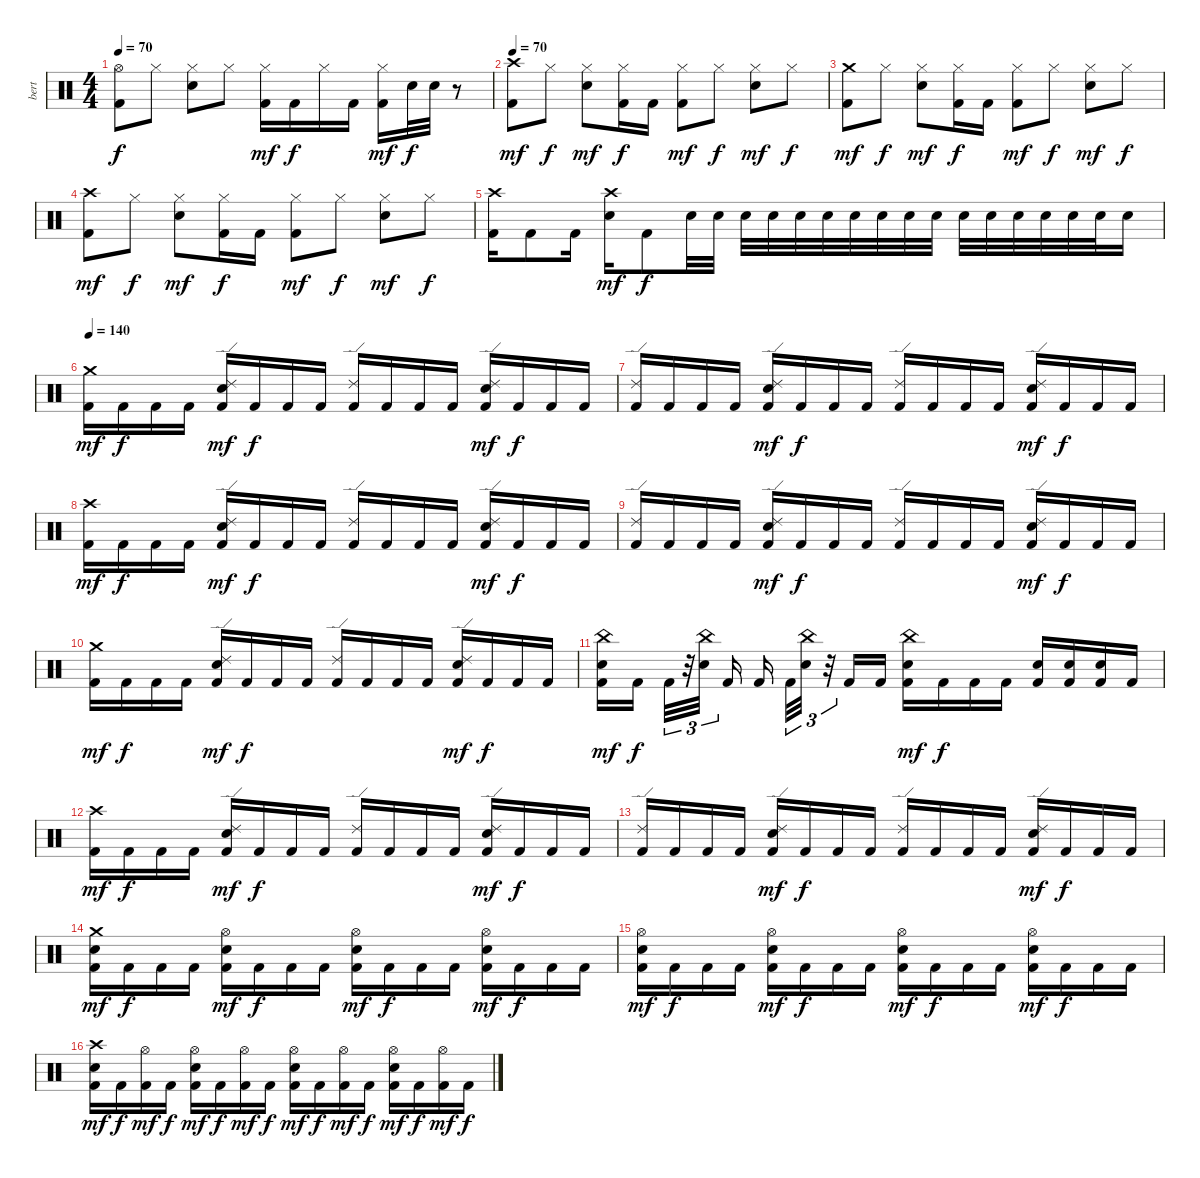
\track ("bert" "bert") {instrument percussion}
\staff {score}
\articulation defaults
\ts (4 4)
\tempo 70
\clef neutral
\ks c
("Hi-Hat (open)" "Kick (hit) 2").8{dy f} "Hi-Hat (closed)".8 ("Hi-Hat (closed)" "Snare (hit) 2").8 "Hi-Hat (closed)".8 ("Hi-Hat (closed)" "Kick (hit) 2").16{dy mf} "Kick (hit) 2".16{dy f} "Hi-Hat (closed)".16 "Kick (hit) 2".16 ("Hi-Hat (closed)" "Kick (hit) 2").16{dy mf} "Snare (hit) 2".32{dy f} "Snare (hit) 2".32 r.8 |
\tempo 70
("Crash high (hit)" "Kick (hit) 2").8{dy mf} "Hi-Hat (closed)".8{dy f} ("Hi-Hat (closed)" "Snare (hit) 2").8{dy mf} ("Hi-Hat (closed)" "Kick (hit) 2").16{dy f} "Kick (hit) 2".16 ("Hi-Hat (closed)" "Kick (hit) 2").8{dy mf} "Hi-Hat (closed)".8{dy f} ("Hi-Hat (closed)" "Snare (hit) 2").8{dy mf} "Hi-Hat (closed)".8{dy f} |
("Crash medium (hit)" "Kick (hit) 2").8{dy mf} "Hi-Hat (closed)".8{dy f} ("Hi-Hat (closed)" "Snare (hit) 2").8{dy mf} ("Hi-Hat (closed)" "Kick (hit) 2").16{dy f} "Kick (hit) 2".16 ("Hi-Hat (closed)" "Kick (hit) 2").8{dy mf} "Hi-Hat (closed)".8{dy f} ("Hi-Hat (closed)" "Snare (hit) 2").8{dy mf} "Hi-Hat (closed)".8{dy f} |
("Crash high (hit)" "Kick (hit) 2").8{dy mf} "Hi-Hat (closed)".8{dy f} ("Hi-Hat (closed)" "Snare (hit) 2").8{dy mf} ("Hi-Hat (closed)" "Kick (hit) 2").16{dy f} "Kick (hit) 2".16 ("Hi-Hat (closed)" "Kick (hit) 2").8{dy mf} "Hi-Hat (closed)".8{dy f} ("Hi-Hat (closed)" "Snare (hit) 2").8{dy mf} "Hi-Hat (closed)".8{dy f} |
("Crash high (hit)" "Kick (hit) 2").16 "Kick (hit) 2".8 "Kick (hit) 2".16 ("Crash high (hit)" "Snare (hit) 2").16{dy mf} "Kick (hit) 2".8{dy f} "Snare (hit) 2".32 "Snare (hit) 2".32 "Snare (hit) 2".32 "Snare (hit) 2".32 "Snare (hit) 2".32 "Snare (hit) 2".32 "Snare (hit) 2".32 "Snare (hit) 2".32 "Snare (hit) 2".32 "Snare (hit) 2".32 "Snare (hit) 2".32 "Snare (hit) 2".32 "Snare (hit) 2".32 "Snare (hit) 2".32 "Snare (hit) 2".32 "Snare (hit) 2".32 "Snare (hit) 2".16 |
\tempo 140
("Crash medium (hit)" "Kick (hit) 2").16{dy mf} "Kick (hit) 2".16{dy f} "Kick (hit) 2".16 "Kick (hit) 2".16 ("Ride (edge) 2" "Snare (hit) 2" "Kick (hit) 2").16{dy mf} "Kick (hit) 2".16{dy f} "Kick (hit) 2".16 "Kick (hit) 2".16 ("Ride (edge) 2" "Kick (hit) 2").16 "Kick (hit) 2".16 "Kick (hit) 2".16 "Kick (hit) 2".16 ("Ride (edge) 2" "Snare (hit) 2" "Kick (hit) 2").16{dy mf} "Kick (hit) 2".16{dy f} "Kick (hit) 2".16 "Kick (hit) 2".16 |
("Ride (edge) 2" "Kick (hit) 2").16 "Kick (hit) 2".16 "Kick (hit) 2".16 "Kick (hit) 2".16 ("Ride (edge) 2" "Snare (hit) 2" "Kick (hit) 2").16{dy mf} "Kick (hit) 2".16{dy f} "Kick (hit) 2".16 "Kick (hit) 2".16 ("Ride (edge) 2" "Kick (hit) 2").16 "Kick (hit) 2".16 "Kick (hit) 2".16 "Kick (hit) 2".16 ("Ride (edge) 2" "Snare (hit) 2" "Kick (hit) 2").16{dy mf} "Kick (hit) 2".16{dy f} "Kick (hit) 2".16 "Kick (hit) 2".16 |
("Crash high (hit)" "Kick (hit) 2").16{dy mf} "Kick (hit) 2".16{dy f} "Kick (hit) 2".16 "Kick (hit) 2".16 ("Ride (edge) 2" "Snare (hit) 2" "Kick (hit) 2").16{dy mf} "Kick (hit) 2".16{dy f} "Kick (hit) 2".16 "Kick (hit) 2".16 ("Ride (edge) 2" "Kick (hit) 2").16 "Kick (hit) 2".16 "Kick (hit) 2".16 "Kick (hit) 2".16 ("Ride (edge) 2" "Snare (hit) 2" "Kick (hit) 2").16{dy mf} "Kick (hit) 2".16{dy f} "Kick (hit) 2".16 "Kick (hit) 2".16 |
("Ride (edge) 2" "Kick (hit) 2").16 "Kick (hit) 2".16 "Kick (hit) 2".16 "Kick (hit) 2".16 ("Ride (edge) 2" "Snare (hit) 2" "Kick (hit) 2").16{dy mf} "Kick (hit) 2".16{dy f} "Kick (hit) 2".16 "Kick (hit) 2".16 ("Ride (edge) 2" "Kick (hit) 2").16 "Kick (hit) 2".16 "Kick (hit) 2".16 "Kick (hit) 2".16 ("Ride (edge) 2" "Snare (hit) 2" "Kick (hit) 2").16{dy mf} "Kick (hit) 2".16{dy f} "Kick (hit) 2".16 "Kick (hit) 2".16 |
("Crash medium (hit)" "Kick (hit) 2").16{dy mf} "Kick (hit) 2".16{dy f} "Kick (hit) 2".16 "Kick (hit) 2".16 ("Ride (edge) 2" "Snare (hit) 2" "Kick (hit) 2").16{dy mf} "Kick (hit) 2".16{dy f} "Kick (hit) 2".16 "Kick (hit) 2".16 ("Ride (edge) 2" "Kick (hit) 2").16 "Kick (hit) 2".16 "Kick (hit) 2".16 "Kick (hit) 2".16 ("Ride (edge) 2" "Snare (hit) 2" "Kick (hit) 2").16{dy mf} "Kick (hit) 2".16{dy f} "Kick (hit) 2".16 "Kick (hit) 2".16 |
("China (hit)" "Snare (hit) 2" "Kick (hit) 2").16{dy mf} "Kick (hit) 2".16{dy f} "Kick (hit) 2".32{tu (3 2)} r.32{tu (3 2)} ("China (hit)" "Snare (hit) 2").32{tu (3 2)} "Kick (hit) 2".16 "Kick (hit) 2".16 "Kick (hit) 2".32{tu (3 2)} ("China (hit)" "Snare (hit) 2").32{tu (3 2)} r.32{tu (3 2)} "Kick (hit) 2".16 "Kick (hit) 2".16 ("China (hit)" "Snare (hit) 2" "Kick (hit) 2").16{dy mf} "Kick (hit) 2".16{dy f} "Kick (hit) 2".16 "Kick (hit) 2".16 ("Snare (hit) 2" "Kick (hit) 2").16 ("Snare (hit) 2" "Kick (hit) 2").16 ("Snare (hit) 2" "Kick (hit) 2").16 "Kick (hit) 2".16 |
("Crash high (hit)" "Kick (hit) 2").16{dy mf} "Kick (hit) 2".16{dy f} "Kick (hit) 2".16 "Kick (hit) 2".16 ("Ride (edge) 2" "Snare (hit) 2" "Kick (hit) 2").16{dy mf} "Kick (hit) 2".16{dy f} "Kick (hit) 2".16 "Kick (hit) 2".16 ("Ride (edge) 2" "Kick (hit) 2").16 "Kick (hit) 2".16 "Kick (hit) 2".16 "Kick (hit) 2".16 ("Ride (edge) 2" "Snare (hit) 2" "Kick (hit) 2").16{dy mf} "Kick (hit) 2".16{dy f} "Kick (hit) 2".16 "Kick (hit) 2".16 |
("Ride (edge) 2" "Kick (hit) 2").16 "Kick (hit) 2".16 "Kick (hit) 2".16 "Kick (hit) 2".16 ("Ride (edge) 2" "Snare (hit) 2" "Kick (hit) 2").16{dy mf} "Kick (hit) 2".16{dy f} "Kick (hit) 2".16 "Kick (hit) 2".16 ("Ride (edge) 2" "Kick (hit) 2").16 "Kick (hit) 2".16 "Kick (hit) 2".16 "Kick (hit) 2".16 ("Ride (edge) 2" "Snare (hit) 2" "Kick (hit) 2").16{dy mf} "Kick (hit) 2".16{dy f} "Kick (hit) 2".16 "Kick (hit) 2".16 |
("Crash medium (hit)" "Snare (hit) 2" "Kick (hit) 2").16{dy mf} "Kick (hit) 2".16{dy f} "Kick (hit) 2".16 "Kick (hit) 2".16 ("Hi-Hat (open)" "Snare (hit) 2" "Kick (hit) 2").16{dy mf} "Kick (hit) 2".16{dy f} "Kick (hit) 2".16 "Kick (hit) 2".16 ("Hi-Hat (open)" "Snare (hit) 2" "Kick (hit) 2").16{dy mf} "Kick (hit) 2".16{dy f} "Kick (hit) 2".16 "Kick (hit) 2".16 ("Hi-Hat (open)" "Snare (hit) 2" "Kick (hit) 2").16{dy mf} "Kick (hit) 2".16{dy f} "Kick (hit) 2".16 "Kick (hit) 2".16 |
("Hi-Hat (open)" "Snare (hit) 2" "Kick (hit) 2").16{dy mf} "Kick (hit) 2".16{dy f} "Kick (hit) 2".16 "Kick (hit) 2".16 ("Hi-Hat (open)" "Snare (hit) 2" "Kick (hit) 2").16{dy mf} "Kick (hit) 2".16{dy f} "Kick (hit) 2".16 "Kick (hit) 2".16 ("Hi-Hat (open)" "Snare (hit) 2" "Kick (hit) 2").16{dy mf} "Kick (hit) 2".16{dy f} "Kick (hit) 2".16 "Kick (hit) 2".16 ("Hi-Hat (open)" "Snare (hit) 2" "Kick (hit) 2").16{dy mf} "Kick (hit) 2".16{dy f} "Kick (hit) 2".16 "Kick (hit) 2".16 |
("Crash high (hit)" "Snare (hit) 2" "Kick (hit) 2").16{dy mf} "Kick (hit) 2".16{dy f} ("Hi-Hat (open)" "Kick (hit) 2").16{dy mf} "Kick (hit) 2".16{dy f} ("Hi-Hat (open)" "Snare (hit) 2" "Kick (hit) 2").16{dy mf} "Kick (hit) 2".16{dy f} ("Hi-Hat (open)" "Kick (hit) 2").16{dy mf} "Kick (hit) 2".16{dy f} ("Hi-Hat (open)" "Snare (hit) 2" "Kick (hit) 2").16{dy mf} "Kick (hit) 2".16{dy f} ("Hi-Hat (open)" "Kick (hit) 2").16{dy mf} "Kick (hit) 2".16{dy f} ("Hi-Hat (open)" "Snare (hit) 2" "Kick (hit) 2").16{dy mf} "Kick (hit) 2".16{dy f} ("Hi-Hat (open)" "Kick (hit) 2").16{dy mf} "Kick (hit) 2".16{dy f}
